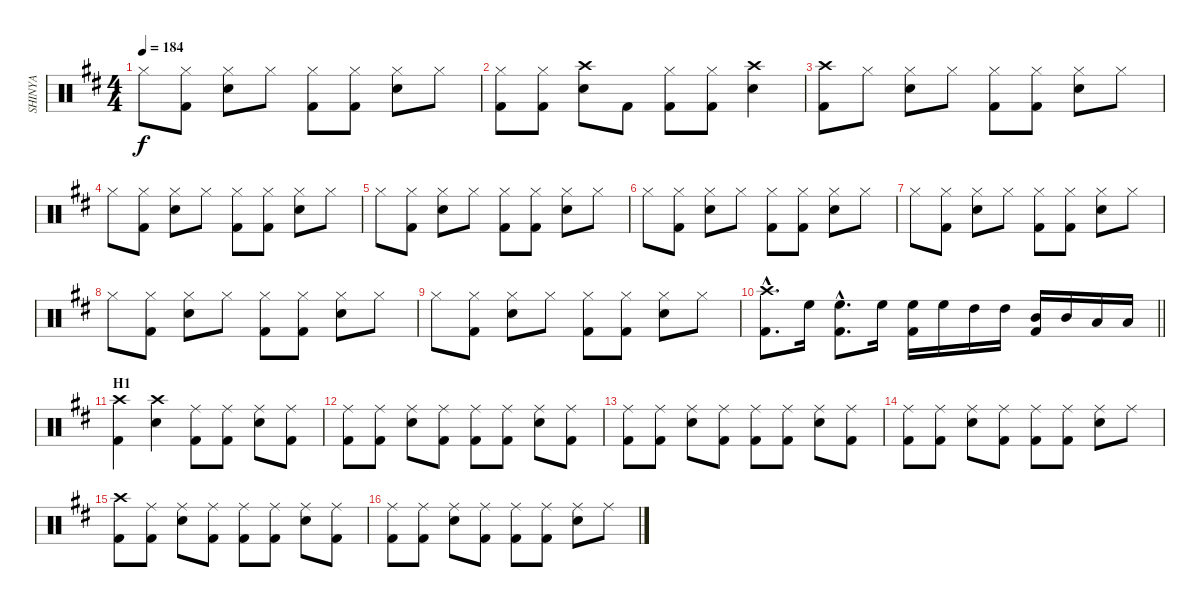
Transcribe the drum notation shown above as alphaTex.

\track ("SHINYA" "SHINYA") {instrument percussion}
\staff {score}
\articulation defaults
\ts (4 4)
\tempo 184
\clef neutral
\ks bminor "Hi-Hat (closed)".8{dy f}
("Hi-Hat (closed)" "Kick (hit) 2").8 ("Hi-Hat (closed)" "Snare (hit) 2").8 "Hi-Hat (closed)".8 ("Hi-Hat (closed)" "Kick (hit) 2").8 ("Hi-Hat (closed)" "Kick (hit) 2").8 ("Hi-Hat (closed)" "Snare (hit) 2").8 "Hi-Hat (closed)".8 |
("Hi-Hat (closed)" "Kick (hit) 2").8 ("Hi-Hat (closed)" "Kick (hit) 2").8 ("Crash high (hit)" "Snare (hit) 2").8 "Kick (hit) 2".8 ("Hi-Hat (closed)" "Kick (hit) 2").8 ("Hi-Hat (closed)" "Kick (hit) 2").8 ("Crash high (hit)" "Snare (hit) 2").4 |
("Crash high (hit)" "Kick (hit) 2").8 "Hi-Hat (closed)".8 ("Hi-Hat (closed)" "Snare (hit) 2").8 "Hi-Hat (closed)".8 ("Hi-Hat (closed)" "Kick (hit) 2").8 ("Hi-Hat (closed)" "Kick (hit) 2").8 ("Hi-Hat (closed)" "Snare (hit) 2").8 "Hi-Hat (closed)".8 |
"Hi-Hat (closed)".8 ("Hi-Hat (closed)" "Kick (hit) 2").8 ("Hi-Hat (closed)" "Snare (hit) 2").8 "Hi-Hat (closed)".8 ("Hi-Hat (closed)" "Kick (hit) 2").8 ("Hi-Hat (closed)" "Kick (hit) 2").8 ("Hi-Hat (closed)" "Snare (hit) 2").8 "Hi-Hat (closed)".8 |
"Hi-Hat (closed)".8 ("Hi-Hat (closed)" "Kick (hit) 2").8 ("Hi-Hat (closed)" "Snare (hit) 2").8 "Hi-Hat (closed)".8 ("Hi-Hat (closed)" "Kick (hit) 2").8 ("Hi-Hat (closed)" "Kick (hit) 2").8 ("Hi-Hat (closed)" "Snare (hit) 2").8 "Hi-Hat (closed)".8 |
"Hi-Hat (closed)".8 ("Hi-Hat (closed)" "Kick (hit) 2").8 ("Hi-Hat (closed)" "Snare (hit) 2").8 "Hi-Hat (closed)".8 ("Hi-Hat (closed)" "Kick (hit) 2").8 ("Hi-Hat (closed)" "Kick (hit) 2").8 ("Hi-Hat (closed)" "Snare (hit) 2").8 "Hi-Hat (closed)".8 |
"Hi-Hat (closed)".8 ("Hi-Hat (closed)" "Kick (hit) 2").8 ("Hi-Hat (closed)" "Snare (hit) 2").8 "Hi-Hat (closed)".8 ("Hi-Hat (closed)" "Kick (hit) 2").8 ("Hi-Hat (closed)" "Kick (hit) 2").8 ("Hi-Hat (closed)" "Snare (hit) 2").8 "Hi-Hat (closed)".8 |
"Hi-Hat (closed)".8 ("Hi-Hat (closed)" "Kick (hit) 2").8 ("Hi-Hat (closed)" "Snare (hit) 2").8 "Hi-Hat (closed)".8 ("Hi-Hat (closed)" "Kick (hit) 2").8 ("Hi-Hat (closed)" "Kick (hit) 2").8 ("Hi-Hat (closed)" "Snare (hit) 2").8 "Hi-Hat (closed)".8 |
"Hi-Hat (closed)".8 ("Hi-Hat (closed)" "Kick (hit) 2").8 ("Hi-Hat (closed)" "Snare (hit) 2").8 "Hi-Hat (closed)".8 ("Hi-Hat (closed)" "Kick (hit) 2").8 ("Hi-Hat (closed)" "Kick (hit) 2").8 ("Hi-Hat (closed)" "Snare (hit) 2").8 "Hi-Hat (closed)".8 |
\barLineRight lightlight
("Crash high (hit)"{hac} "Kick (hit) 2"{hac}).8{d} "High Floor Tom (hit)".16 ("High Floor Tom (hit)"{hac} "Kick (hit) 2"{hac}).8{d} "High Floor Tom (hit)".16 ("High Floor Tom (hit)" "Kick (hit) 2").16 "High Floor Tom (hit)".16 "High Tom (hit)".16 "High Tom (hit)".16 ("Mid Tom (hit)" "Kick (hit) 2").16 "Mid Tom (hit)".16 "Low Tom (hit)".16 "Low Tom (hit)".16 |
\section ("" "H1")
("Crash high (hit)" "Kick (hit) 2").4 ("Crash high (hit)" "Snare (hit) 2").4 ("Ride (middle)" "Kick (hit) 2").8 ("Ride (middle)" "Kick (hit) 2").8 ("Ride (middle)" "Snare (hit) 2").8 ("Ride (middle)" "Kick (hit) 2").8 |
("Ride (middle)" "Kick (hit) 2").8 ("Ride (middle)" "Kick (hit) 2").8 ("Ride (middle)" "Snare (hit) 2").8 ("Ride (middle)" "Kick (hit) 2").8 ("Ride (middle)" "Kick (hit) 2").8 ("Ride (middle)" "Kick (hit) 2").8 ("Ride (middle)" "Snare (hit) 2").8 ("Ride (middle)" "Kick (hit) 2").8 |
("Ride (middle)" "Kick (hit) 2").8 ("Ride (middle)" "Kick (hit) 2").8 ("Ride (middle)" "Snare (hit) 2").8 ("Ride (middle)" "Kick (hit) 2").8 ("Ride (middle)" "Kick (hit) 2").8 ("Ride (middle)" "Kick (hit) 2").8 ("Ride (middle)" "Snare (hit) 2").8 ("Ride (middle)" "Kick (hit) 2").8 |
("Ride (middle)" "Kick (hit) 2").8 ("Ride (middle)" "Kick (hit) 2").8 ("Ride (middle)" "Snare (hit) 2").8 ("Ride (middle)" "Kick (hit) 2").8 ("Ride (middle)" "Kick (hit) 2").8 ("Ride (middle)" "Kick (hit) 2").8 ("Ride (middle)" "Snare (hit) 2").8 "Ride (middle)".8 |
("Crash high (hit)" "Kick (hit) 2").8 ("Ride (middle)" "Kick (hit) 2").8 ("Ride (middle)" "Snare (hit) 2").8 ("Ride (middle)" "Kick (hit) 2").8 ("Ride (middle)" "Kick (hit) 2").8 ("Ride (middle)" "Kick (hit) 2").8 ("Ride (middle)" "Snare (hit) 2").8 ("Ride (middle)" "Kick (hit) 2").8 |
("Ride (middle)" "Kick (hit) 2").8 ("Ride (middle)" "Kick (hit) 2").8 ("Ride (middle)" "Snare (hit) 2").8 ("Ride (middle)" "Kick (hit) 2").8 ("Ride (middle)" "Kick (hit) 2").8 ("Ride (middle)" "Kick (hit) 2").8 ("Ride (middle)" "Snare (hit) 2").8 "Ride (middle)".8
